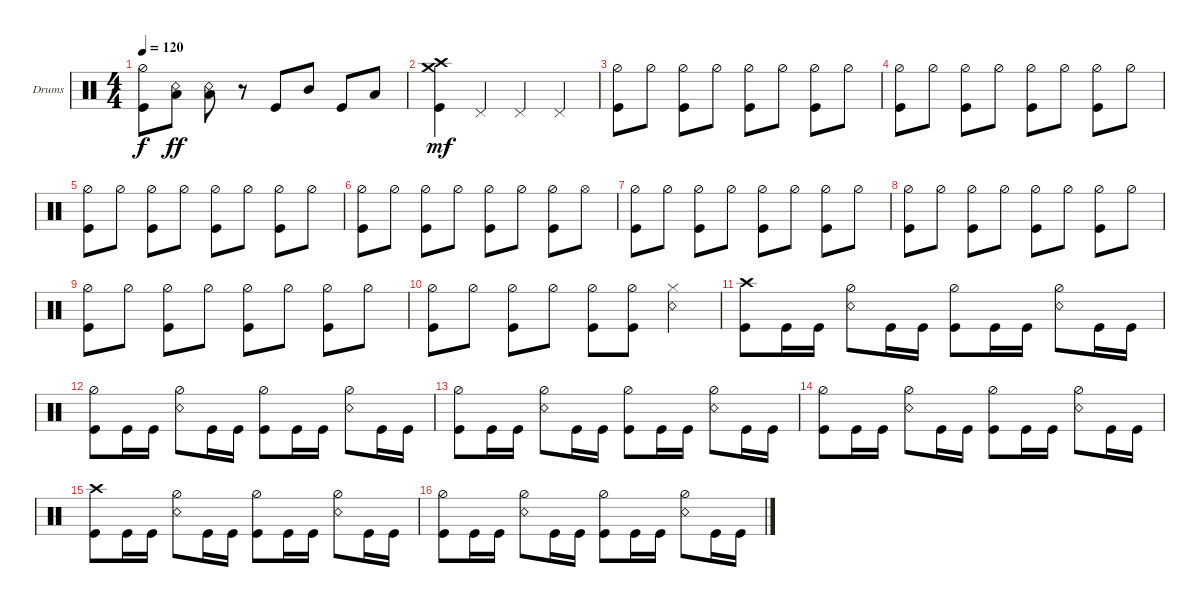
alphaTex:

\defaultSystemsLayout 4
\bracketExtendMode groupsimilarinstruments
\firstSystemTrackNameOrientation horizontal
\otherSystemsTrackNameOrientation horizontal
\track ("Drumkit" "Drums") {instrument percussion}
\staff {score}
\articulation defaults
\ts (4 4)
\tempo 120
\clef neutral
\ks c
("Kick (hit)" "Hi-Hat (half)").8{dy f} ("Snare (rim shot)" "Low Tom (hit)").8{dy ff} ("Snare (rim shot)" "Low Tom (hit)").8 r.8 "Kick (hit)".8 "Mid Tom (hit)".8 "Kick (hit)".8 "Low Tom (hit)".8 |
("Kick (hit)" "Crash high (hit)" "Crash medium (hit)").4{dy mf} "Pedal Hi-Hat (hit)".4 "Pedal Hi-Hat (hit)".4 "Pedal Hi-Hat (hit)".4 |
("Kick (hit)" "Hi-Hat (half)").8 "Hi-Hat (half)".8 ("Kick (hit)" "Hi-Hat (half)").8 "Hi-Hat (half)".8 ("Kick (hit)" "Hi-Hat (half)").8 "Hi-Hat (half)".8 ("Kick (hit)" "Hi-Hat (half)").8 "Hi-Hat (half)".8 |
("Kick (hit)" "Hi-Hat (half)").8 "Hi-Hat (half)".8 ("Kick (hit)" "Hi-Hat (half)").8 "Hi-Hat (half)".8 ("Kick (hit)" "Hi-Hat (half)").8 "Hi-Hat (half)".8 ("Kick (hit)" "Hi-Hat (half)").8 "Hi-Hat (half)".8 |
("Kick (hit)" "Hi-Hat (half)").8 "Hi-Hat (half)".8 ("Kick (hit)" "Hi-Hat (half)").8 "Hi-Hat (half)".8 ("Kick (hit)" "Hi-Hat (half)").8 "Hi-Hat (half)".8 ("Kick (hit)" "Hi-Hat (half)").8 "Hi-Hat (half)".8 |
("Kick (hit)" "Hi-Hat (half)").8 "Hi-Hat (half)".8 ("Kick (hit)" "Hi-Hat (half)").8 "Hi-Hat (half)".8 ("Kick (hit)" "Hi-Hat (half)").8 "Hi-Hat (half)".8 ("Kick (hit)" "Hi-Hat (half)").8 "Hi-Hat (open)".8 |
("Kick (hit)" "Hi-Hat (half)").8 "Hi-Hat (half)".8 ("Kick (hit)" "Hi-Hat (half)").8 "Hi-Hat (half)".8 ("Kick (hit)" "Hi-Hat (half)").8 "Hi-Hat (half)".8 ("Kick (hit)" "Hi-Hat (half)").8 "Hi-Hat (half)".8 |
("Kick (hit)" "Hi-Hat (half)").8 "Hi-Hat (half)".8 ("Kick (hit)" "Hi-Hat (half)").8 "Hi-Hat (half)".8 ("Kick (hit)" "Hi-Hat (half)").8 "Hi-Hat (half)".8 ("Kick (hit)" "Hi-Hat (half)").8 "Hi-Hat (half)".8 |
("Kick (hit)" "Hi-Hat (half)").8 "Hi-Hat (half)".8 ("Kick (hit)" "Hi-Hat (half)").8 "Hi-Hat (half)".8 ("Kick (hit)" "Hi-Hat (half)").8 "Hi-Hat (half)".8 ("Kick (hit)" "Hi-Hat (half)").8 "Hi-Hat (half)".8 |
("Kick (hit)" "Hi-Hat (half)").8 "Hi-Hat (half)".8 ("Kick (hit)" "Hi-Hat (half)").8 "Hi-Hat (half)".8 ("Kick (hit)" "Hi-Hat (half)").8 ("Kick (hit)" "Hi-Hat (half)").8 ("Snare (rim shot)" "Hi-Hat (closed)").4 |
("Kick (hit)" "Crash high (hit)").8 "Kick (hit)".16 "Kick (hit)".16 ("Snare (rim shot)" "Hi-Hat (half)").8 "Kick (hit)".16 "Kick (hit)".16 ("Kick (hit)" "Hi-Hat (half)").8 "Kick (hit)".16 "Kick (hit)".16 ("Snare (rim shot)" "Hi-Hat (half)").8 "Kick (hit)".16 "Kick (hit)".16 |
("Kick (hit)" "Hi-Hat (half)").8 "Kick (hit)".16 "Kick (hit)".16 ("Snare (rim shot)" "Hi-Hat (half)").8 "Kick (hit)".16 "Kick (hit)".16 ("Kick (hit)" "Hi-Hat (half)").8 "Kick (hit)".16 "Kick (hit)".16 ("Snare (rim shot)" "Hi-Hat (half)").8 "Kick (hit)".16 "Kick (hit)".16 |
("Kick (hit)" "Hi-Hat (half)").8 "Kick (hit)".16 "Kick (hit)".16 ("Snare (rim shot)" "Hi-Hat (half)").8 "Kick (hit)".16 "Kick (hit)".16 ("Kick (hit)" "Hi-Hat (half)").8 "Kick (hit)".16 "Kick (hit)".16 ("Snare (rim shot)" "Hi-Hat (half)").8 "Kick (hit)".16 "Kick (hit)".16 |
("Kick (hit)" "Hi-Hat (half)").8 "Kick (hit)".16 "Kick (hit)".16 ("Snare (rim shot)" "Hi-Hat (half)").8 "Kick (hit)".16 "Kick (hit)".16 ("Kick (hit)" "Hi-Hat (half)").8 "Kick (hit)".16 "Kick (hit)".16 ("Snare (rim shot)" "Hi-Hat (half)").8 "Kick (hit)".16 "Kick (hit)".16 |
("Kick (hit)" "Crash high (hit)").8 "Kick (hit)".16 "Kick (hit)".16 ("Snare (rim shot)" "Hi-Hat (half)").8 "Kick (hit)".16 "Kick (hit)".16 ("Kick (hit)" "Hi-Hat (half)").8 "Kick (hit)".16 "Kick (hit)".16 ("Snare (rim shot)" "Hi-Hat (half)").8 "Kick (hit)".16 "Kick (hit)".16 |
("Kick (hit)" "Hi-Hat (half)").8 "Kick (hit)".16 "Kick (hit)".16 ("Snare (rim shot)" "Hi-Hat (half)").8 "Kick (hit)".16 "Kick (hit)".16 ("Kick (hit)" "Hi-Hat (half)").8 "Kick (hit)".16 "Kick (hit)".16 ("Snare (rim shot)" "Hi-Hat (half)").8 "Kick (hit)".16 "Kick (hit)".16
